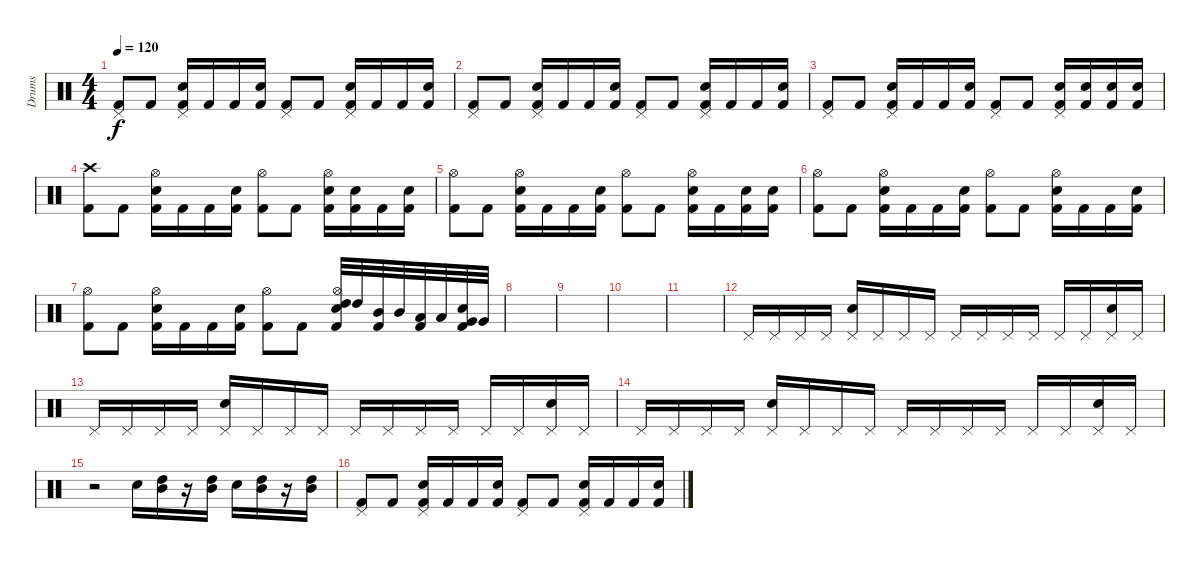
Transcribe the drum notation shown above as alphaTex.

\track ("Drums" "Drums") {instrument percussion}
\staff {score}
\articulation defaults
\ts (4 4)
\tempo 120
\clef neutral
\ks c
("Pedal Hi-Hat (hit)" "Kick (hit) 2").8{dy f} "Kick (hit) 2".8 ("Pedal Hi-Hat (hit)" "Electric Snare (hit)" "Kick (hit) 2").16 "Kick (hit) 2".16 "Kick (hit) 2".16 ("Electric Snare (hit)" "Kick (hit) 2").16 ("Pedal Hi-Hat (hit)" "Kick (hit) 2").8 "Kick (hit) 2".8 ("Pedal Hi-Hat (hit)" "Electric Snare (hit)" "Kick (hit) 2").16 "Kick (hit) 2".16 "Kick (hit) 2".16 ("Electric Snare (hit)" "Kick (hit) 2").16 |
("Pedal Hi-Hat (hit)" "Kick (hit) 2").8 "Kick (hit) 2".8 ("Pedal Hi-Hat (hit)" "Electric Snare (hit)" "Kick (hit) 2").16 "Kick (hit) 2".16 "Kick (hit) 2".16 ("Electric Snare (hit)" "Kick (hit) 2").16 ("Pedal Hi-Hat (hit)" "Kick (hit) 2").8 "Kick (hit) 2".8 ("Pedal Hi-Hat (hit)" "Electric Snare (hit)" "Kick (hit) 2").16 "Kick (hit) 2".16 "Kick (hit) 2".16 ("Electric Snare (hit)" "Kick (hit) 2").16 |
("Pedal Hi-Hat (hit)" "Kick (hit) 2").8 "Kick (hit) 2".8 ("Pedal Hi-Hat (hit)" "Electric Snare (hit)" "Kick (hit) 2").16 "Kick (hit) 2".16 "Kick (hit) 2".16 ("Electric Snare (hit)" "Kick (hit) 2").16 ("Pedal Hi-Hat (hit)" "Kick (hit) 2").8 "Kick (hit) 2".8 ("Pedal Hi-Hat (hit)" "Electric Snare (hit)" "Kick (hit) 2").16 ("Electric Snare (hit)" "Kick (hit) 2").16 ("Electric Snare (hit)" "Kick (hit) 2").16 ("Electric Snare (hit)" "Kick (hit) 2").16 |
("Crash high (hit)" "Kick (hit) 2").8 "Kick (hit) 2".8 ("Hi-Hat (open)" "Electric Snare (hit)" "Kick (hit) 2").16 "Kick (hit) 2".16 "Kick (hit) 2".16 ("Electric Snare (hit)" "Kick (hit) 2").16 ("Hi-Hat (open)" "Kick (hit) 2").8 "Kick (hit) 2".8 ("Hi-Hat (open)" "Electric Snare (hit)" "Kick (hit) 2").16 ("Electric Snare (hit)" "Kick (hit) 2").16 "Kick (hit) 2".16 ("Electric Snare (hit)" "Kick (hit) 2").16 |
("Hi-Hat (open)" "Kick (hit) 2").8 "Kick (hit) 2".8 ("Hi-Hat (open)" "Electric Snare (hit)" "Kick (hit) 2").16 "Kick (hit) 2".16 "Kick (hit) 2".16 ("Electric Snare (hit)" "Kick (hit) 2").16 ("Hi-Hat (open)" "Kick (hit) 2").8 "Kick (hit) 2".8 ("Hi-Hat (open)" "Electric Snare (hit)" "Kick (hit) 2").16 "Kick (hit) 2".16 ("Electric Snare (hit)" "Kick (hit) 2").16 ("Electric Snare (hit)" "Kick (hit) 2").16 |
("Hi-Hat (open)" "Kick (hit) 2").8 "Kick (hit) 2".8 ("Hi-Hat (open)" "Electric Snare (hit)" "Kick (hit) 2").16 "Kick (hit) 2".16 "Kick (hit) 2".16 ("Electric Snare (hit)" "Kick (hit) 2").16 ("Hi-Hat (open)" "Kick (hit) 2").8 "Kick (hit) 2".8 ("Hi-Hat (open)" "Electric Snare (hit)" "Kick (hit) 2").16 "Kick (hit) 2".16 "Kick (hit) 2".16 ("Electric Snare (hit)" "Kick (hit) 2").16 |
("Hi-Hat (open)" "Kick (hit) 2").8 "Kick (hit) 2".8 ("Hi-Hat (open)" "Electric Snare (hit)" "Kick (hit) 2").16 "Kick (hit) 2".16 "Kick (hit) 2".16 ("Electric Snare (hit)" "Kick (hit) 2").16 ("Hi-Hat (open)" "Kick (hit) 2").8 "Kick (hit) 2".8 ("Hi-Hat (open)" "Electric Snare (hit)" "High Tom (hit)" "Kick (hit) 2").32 "High Tom (hit)".32 ("Mid Tom (hit)" "Kick (hit) 2").32 "Mid Tom (hit)".32 ("Low Tom (hit)" "Kick (hit) 2").32 "Low Tom (hit)".32 ("Electric Snare (hit)" "Very Low Tom (hit)" "Kick (hit) 2").32 "Very Low Tom (hit)".32 |
|
|
|
|
"Pedal Hi-Hat (hit)".16 "Pedal Hi-Hat (hit)".16 "Pedal Hi-Hat (hit)".16 "Pedal Hi-Hat (hit)".16 ("Pedal Hi-Hat (hit)" "Electric Snare (hit)").16 "Pedal Hi-Hat (hit)".16 "Pedal Hi-Hat (hit)".16 "Pedal Hi-Hat (hit)".16 "Pedal Hi-Hat (hit)".16 "Pedal Hi-Hat (hit)".16 "Pedal Hi-Hat (hit)".16 "Pedal Hi-Hat (hit)".16 "Pedal Hi-Hat (hit)".16 "Pedal Hi-Hat (hit)".16 ("Pedal Hi-Hat (hit)" "Electric Snare (hit)").16 "Pedal Hi-Hat (hit)".16 |
"Pedal Hi-Hat (hit)".16 "Pedal Hi-Hat (hit)".16 "Pedal Hi-Hat (hit)".16 "Pedal Hi-Hat (hit)".16 ("Pedal Hi-Hat (hit)" "Electric Snare (hit)").16 "Pedal Hi-Hat (hit)".16 "Pedal Hi-Hat (hit)".16 "Pedal Hi-Hat (hit)".16 "Pedal Hi-Hat (hit)".16 "Pedal Hi-Hat (hit)".16 "Pedal Hi-Hat (hit)".16 "Pedal Hi-Hat (hit)".16 "Pedal Hi-Hat (hit)".16 "Pedal Hi-Hat (hit)".16 ("Pedal Hi-Hat (hit)" "Electric Snare (hit)").16 "Pedal Hi-Hat (hit)".16 |
"Pedal Hi-Hat (hit)".16 "Pedal Hi-Hat (hit)".16 "Pedal Hi-Hat (hit)".16 "Pedal Hi-Hat (hit)".16 ("Pedal Hi-Hat (hit)" "Electric Snare (hit)").16 "Pedal Hi-Hat (hit)".16 "Pedal Hi-Hat (hit)".16 "Pedal Hi-Hat (hit)".16 "Pedal Hi-Hat (hit)".16 "Pedal Hi-Hat (hit)".16 "Pedal Hi-Hat (hit)".16 "Pedal Hi-Hat (hit)".16 "Pedal Hi-Hat (hit)".16 "Pedal Hi-Hat (hit)".16 ("Pedal Hi-Hat (hit)" "Electric Snare (hit)").16 "Pedal Hi-Hat (hit)".16 |
r.2 "Electric Snare (hit)".16 ("High Tom (hit)" "Mid Tom (hit)").16 r.16 ("High Tom (hit)" "Mid Tom (hit)").16 "Electric Snare (hit)".16 ("High Tom (hit)" "Mid Tom (hit)").16 r.16 ("High Tom (hit)" "Mid Tom (hit)").16 |
("Pedal Hi-Hat (hit)" "Kick (hit) 2").8 "Kick (hit) 2".8 ("Pedal Hi-Hat (hit)" "Electric Snare (hit)" "Kick (hit) 2").16 "Kick (hit) 2".16 "Kick (hit) 2".16 ("Electric Snare (hit)" "Kick (hit) 2").16 ("Pedal Hi-Hat (hit)" "Kick (hit) 2").8 "Kick (hit) 2".8 ("Pedal Hi-Hat (hit)" "Electric Snare (hit)" "Kick (hit) 2").16 "Kick (hit) 2".16 "Kick (hit) 2".16 ("Electric Snare (hit)" "Kick (hit) 2").16
